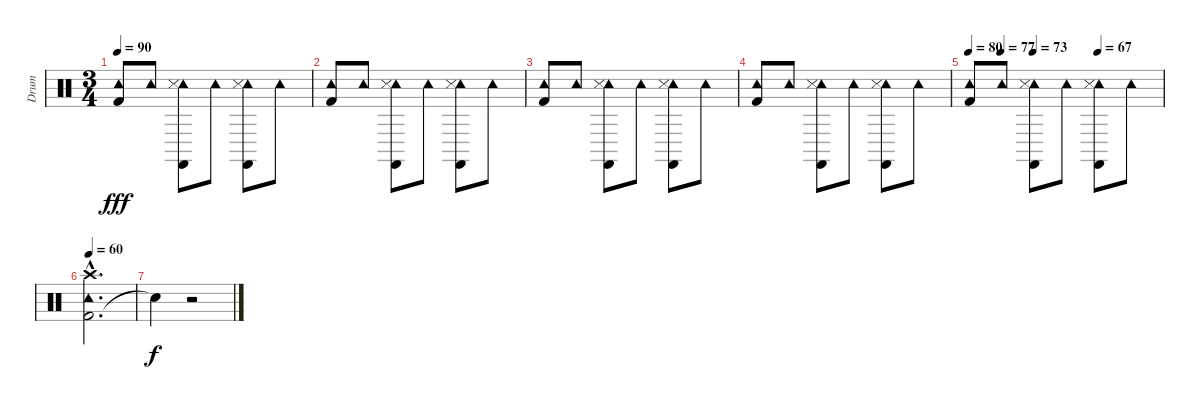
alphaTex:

\track ("Drum" "Drum") {instrument percussion}
\staff {score}
\articulation defaults
\ts (3 4)
\tempo 90
\clef neutral
\ks c
("Kick (hit) 2" "Tambourine (hit)").8{dy fff} "Tambourine (hit)".8 ("Castanets (hit)" "Tambourine (hit)" "Snare (side stick) 3").8 "Tambourine (hit)".8 ("Castanets (hit)" "Tambourine (hit)" "Snare (side stick) 3").8 "Tambourine (hit)".8 |
("Kick (hit) 2" "Tambourine (hit)").8 "Tambourine (hit)".8 ("Castanets (hit)" "Tambourine (hit)" "Snare (side stick) 3").8 "Tambourine (hit)".8 ("Castanets (hit)" "Tambourine (hit)" "Snare (side stick) 3").8 "Tambourine (hit)".8 |
("Kick (hit) 2" "Tambourine (hit)").8 "Tambourine (hit)".8 ("Castanets (hit)" "Tambourine (hit)" "Snare (side stick) 3").8 "Tambourine (hit)".8 ("Castanets (hit)" "Tambourine (hit)" "Snare (side stick) 3").8 "Tambourine (hit)".8 |
("Kick (hit) 2" "Tambourine (hit)").8 "Tambourine (hit)".8 ("Castanets (hit)" "Tambourine (hit)" "Snare (side stick) 3").8 "Tambourine (hit)".8 ("Castanets (hit)" "Tambourine (hit)" "Snare (side stick) 3").8 "Tambourine (hit)".8 |
\tempo 80
\tempo (77 0.16666666666666666)
\tempo (73 0.3333333333333333)
\tempo (67 0.6666666666666666)
("Kick (hit) 2" "Tambourine (hit)").8 "Tambourine (hit)".8 ("Castanets (hit)" "Tambourine (hit)" "Snare (side stick) 3").8 "Tambourine (hit)".8 ("Castanets (hit)" "Tambourine (hit)" "Snare (side stick) 3").8 "Tambourine (hit)".8 |
\tempo 60
("Kick (hit) 2" "Crash high (hit)"{hac} "Tambourine (hit)").2{d} |
"Snare (hit)"{t}.4{dy f} r.2
